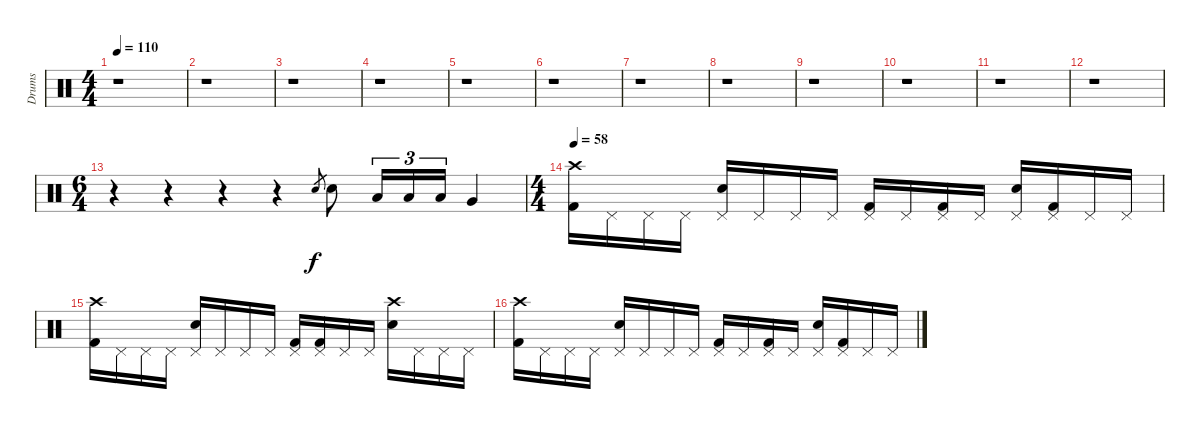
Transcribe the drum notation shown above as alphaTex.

\track ("Drums" "Drums") {instrument percussion}
\staff {score}
\articulation defaults
\ts (4 4)
\tempo 110
\clef neutral
\ks c
r.1{dy f} |
r.1 |
r.1 |
r.1 |
r.1 |
r.1 |
r.1 |
r.1 |
r.1 |
r.1 |
r.1 |
r.1 |
\ts (6 4)
r.4 r.4 r.4 r.4 "Electric Snare (hit)".8{gr} "Electric Snare (hit)".8 "Low Tom (hit)".16{tu (3 2)} "Low Tom (hit)".16{tu (3 2)} "Low Tom (hit)".16{tu (3 2)} "Very Low Tom (hit)".4 |
\ts (4 4)
\tempo 58
("Crash high (hit)" "Kick (hit) 2").16 "Pedal Hi-Hat (hit)".16 "Pedal Hi-Hat (hit)".16 "Pedal Hi-Hat (hit)".16 ("Pedal Hi-Hat (hit)" "Electric Snare (hit)").16 "Pedal Hi-Hat (hit)".16 "Pedal Hi-Hat (hit)".16 "Pedal Hi-Hat (hit)".16 ("Pedal Hi-Hat (hit)" "Kick (hit) 2").16 "Pedal Hi-Hat (hit)".16 ("Pedal Hi-Hat (hit)" "Kick (hit) 2").16 "Pedal Hi-Hat (hit)".16 ("Pedal Hi-Hat (hit)" "Electric Snare (hit)").16 ("Pedal Hi-Hat (hit)" "Kick (hit) 2").16 "Pedal Hi-Hat (hit)".16 "Pedal Hi-Hat (hit)".16 |
("Crash high (hit)" "Kick (hit) 2").16 "Pedal Hi-Hat (hit)".16 "Pedal Hi-Hat (hit)".16 "Pedal Hi-Hat (hit)".16 ("Pedal Hi-Hat (hit)" "Electric Snare (hit)").16 "Pedal Hi-Hat (hit)".16 "Pedal Hi-Hat (hit)".16 "Pedal Hi-Hat (hit)".16 ("Pedal Hi-Hat (hit)" "Kick (hit) 2").16 ("Pedal Hi-Hat (hit)" "Kick (hit) 2").16 "Pedal Hi-Hat (hit)".16 "Pedal Hi-Hat (hit)".16 ("Crash high (hit)" "Electric Snare (hit)").16 "Pedal Hi-Hat (hit)".16 "Pedal Hi-Hat (hit)".16 "Pedal Hi-Hat (hit)".16 |
("Crash high (hit)" "Kick (hit) 2").16 "Pedal Hi-Hat (hit)".16 "Pedal Hi-Hat (hit)".16 "Pedal Hi-Hat (hit)".16 ("Pedal Hi-Hat (hit)" "Electric Snare (hit)").16 "Pedal Hi-Hat (hit)".16 "Pedal Hi-Hat (hit)".16 "Pedal Hi-Hat (hit)".16 ("Pedal Hi-Hat (hit)" "Kick (hit) 2").16 "Pedal Hi-Hat (hit)".16 ("Pedal Hi-Hat (hit)" "Kick (hit) 2").16 "Pedal Hi-Hat (hit)".16 ("Pedal Hi-Hat (hit)" "Electric Snare (hit)").16 ("Pedal Hi-Hat (hit)" "Kick (hit) 2").16 "Pedal Hi-Hat (hit)".16 "Pedal Hi-Hat (hit)".16
